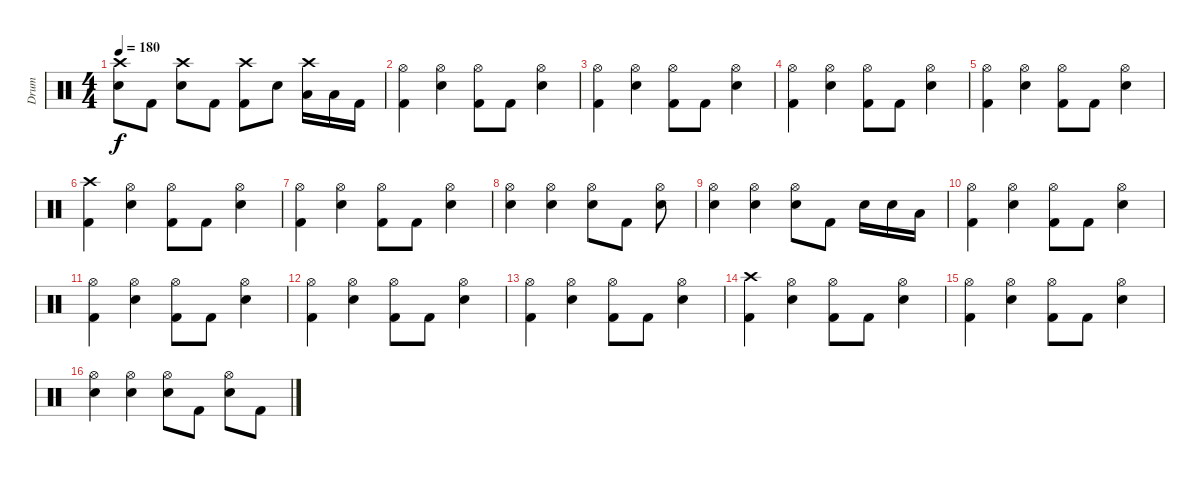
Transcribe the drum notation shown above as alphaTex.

\track ("Drum" "Drum") {instrument percussion}
\staff {score}
\articulation defaults
\ts (4 4)
\tempo 180
\clef neutral
\ks c
("Crash high (hit)" "Electric Snare (hit)").8{dy f} "Kick (hit) 2".8 ("Crash high (hit)" "Electric Snare (hit)").8 "Kick (hit) 2".8 ("Crash high (hit)" "Kick (hit) 2").8 "Electric Snare (hit)".8 ("Crash high (hit)" "Low Tom (hit)").16 "Low Tom (hit)".16 "Kick (hit) 2".16 |
("Hi-Hat (open)" "Kick (hit) 2").4 ("Hi-Hat (open)" "Electric Snare (hit)").4 ("Hi-Hat (open)" "Kick (hit) 2").8 "Kick (hit) 2".8 ("Hi-Hat (open)" "Electric Snare (hit)").4 |
("Hi-Hat (open)" "Kick (hit) 2").4 ("Hi-Hat (open)" "Electric Snare (hit)").4 ("Hi-Hat (open)" "Kick (hit) 2").8 "Kick (hit) 2".8 ("Hi-Hat (open)" "Electric Snare (hit)").4 |
("Hi-Hat (open)" "Kick (hit) 2").4 ("Hi-Hat (open)" "Electric Snare (hit)").4 ("Hi-Hat (open)" "Kick (hit) 2").8 "Kick (hit) 2".8 ("Hi-Hat (open)" "Electric Snare (hit)").4 |
("Hi-Hat (open)" "Kick (hit) 2").4 ("Hi-Hat (open)" "Electric Snare (hit)").4 ("Hi-Hat (open)" "Kick (hit) 2").8 "Kick (hit) 2".8 ("Hi-Hat (open)" "Electric Snare (hit)").4 |
("Crash high (hit)" "Kick (hit) 2").4 ("Hi-Hat (open)" "Electric Snare (hit)").4 ("Hi-Hat (open)" "Kick (hit) 2").8 "Kick (hit) 2".8 ("Hi-Hat (open)" "Electric Snare (hit)").4 |
("Hi-Hat (open)" "Kick (hit) 2").4 ("Hi-Hat (open)" "Electric Snare (hit)").4 ("Hi-Hat (open)" "Kick (hit) 2").8 "Kick (hit) 2".8 ("Hi-Hat (open)" "Electric Snare (hit)").4 |
("Hi-Hat (open)" "Electric Snare (hit)").4 ("Hi-Hat (open)" "Electric Snare (hit)").4 ("Hi-Hat (open)" "Electric Snare (hit)").8 "Kick (hit) 2".8 ("Hi-Hat (open)" "Electric Snare (hit)").8 |
("Hi-Hat (open)" "Electric Snare (hit)").4 ("Hi-Hat (open)" "Electric Snare (hit)").4 ("Hi-Hat (open)" "Electric Snare (hit)").8 "Kick (hit) 2".8 "Electric Snare (hit)".16 "Electric Snare (hit)".16 "Low Tom (hit)".16 |
("Hi-Hat (open)" "Kick (hit) 2").4 ("Hi-Hat (open)" "Electric Snare (hit)").4 ("Hi-Hat (open)" "Kick (hit) 2").8 "Kick (hit) 2".8 ("Hi-Hat (open)" "Electric Snare (hit)").4 |
("Hi-Hat (open)" "Kick (hit) 2").4 ("Hi-Hat (open)" "Electric Snare (hit)").4 ("Hi-Hat (open)" "Kick (hit) 2").8 "Kick (hit) 2".8 ("Hi-Hat (open)" "Electric Snare (hit)").4 |
("Hi-Hat (open)" "Kick (hit) 2").4 ("Hi-Hat (open)" "Electric Snare (hit)").4 ("Hi-Hat (open)" "Kick (hit) 2").8 "Kick (hit) 2".8 ("Hi-Hat (open)" "Electric Snare (hit)").4 |
("Hi-Hat (open)" "Kick (hit) 2").4 ("Hi-Hat (open)" "Electric Snare (hit)").4 ("Hi-Hat (open)" "Kick (hit) 2").8 "Kick (hit) 2".8 ("Hi-Hat (open)" "Electric Snare (hit)").4 |
("Crash high (hit)" "Kick (hit) 2").4 ("Hi-Hat (open)" "Electric Snare (hit)").4 ("Hi-Hat (open)" "Kick (hit) 2").8 "Kick (hit) 2".8 ("Hi-Hat (open)" "Electric Snare (hit)").4 |
("Hi-Hat (open)" "Kick (hit) 2").4 ("Hi-Hat (open)" "Electric Snare (hit)").4 ("Hi-Hat (open)" "Kick (hit) 2").8 "Kick (hit) 2".8 ("Hi-Hat (open)" "Electric Snare (hit)").4 |
("Hi-Hat (open)" "Electric Snare (hit)").4 ("Hi-Hat (open)" "Electric Snare (hit)").4 ("Hi-Hat (open)" "Electric Snare (hit)").8 "Kick (hit) 2".8 ("Hi-Hat (open)" "Electric Snare (hit)").8 "Kick (hit) 2".8
